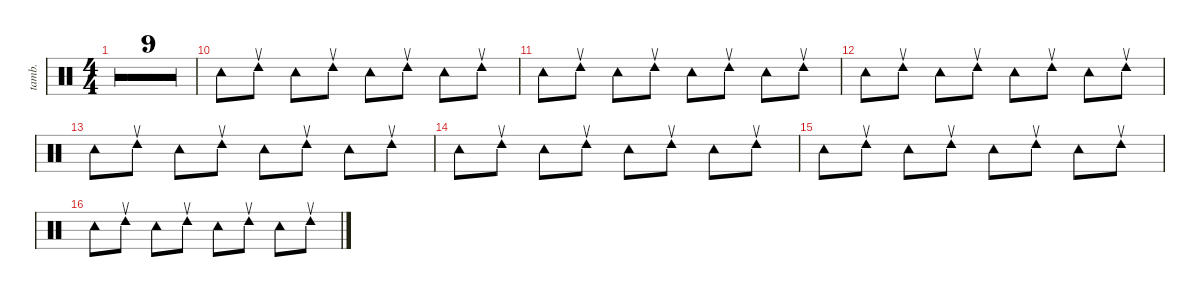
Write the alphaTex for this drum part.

\defaultSystemsLayout 4
\hideDynamics
\bracketExtendMode nobrackets
\otherSystemsTrackNameOrientation horizontal
\track ("Tambourine" "tamb.") {multiBarRest instrument percussion}
\staff
\articulation defaults
\ts (4 4)
\tempo 208
\clef neutral
\ks c
r.1{dy mf} |
r.1 |
r.1 |
r.1 |
r.1 |
r.1 |
r.1 |
r.1 |
r.1 |
"Tambourine (hit)".8 "Tambourine (return)".8 "Tambourine (hit)".8 "Tambourine (return)".8 "Tambourine (hit)".8 "Tambourine (return)".8 "Tambourine (hit)".8 "Tambourine (return)".8 |
"Tambourine (hit)".8 "Tambourine (return)".8 "Tambourine (hit)".8 "Tambourine (return)".8 "Tambourine (hit)".8 "Tambourine (return)".8 "Tambourine (hit)".8 "Tambourine (return)".8 |
"Tambourine (hit)".8 "Tambourine (return)".8 "Tambourine (hit)".8 "Tambourine (return)".8 "Tambourine (hit)".8 "Tambourine (return)".8 "Tambourine (hit)".8 "Tambourine (return)".8 |
"Tambourine (hit)".8 "Tambourine (return)".8 "Tambourine (hit)".8 "Tambourine (return)".8 "Tambourine (hit)".8 "Tambourine (return)".8 "Tambourine (hit)".8 "Tambourine (return)".8 |
"Tambourine (hit)".8 "Tambourine (return)".8 "Tambourine (hit)".8 "Tambourine (return)".8 "Tambourine (hit)".8 "Tambourine (return)".8 "Tambourine (hit)".8 "Tambourine (return)".8 |
"Tambourine (hit)".8 "Tambourine (return)".8 "Tambourine (hit)".8 "Tambourine (return)".8 "Tambourine (hit)".8 "Tambourine (return)".8 "Tambourine (hit)".8 "Tambourine (return)".8 |
"Tambourine (hit)".8 "Tambourine (return)".8 "Tambourine (hit)".8 "Tambourine (return)".8 "Tambourine (hit)".8 "Tambourine (return)".8 "Tambourine (hit)".8 "Tambourine (return)".8
